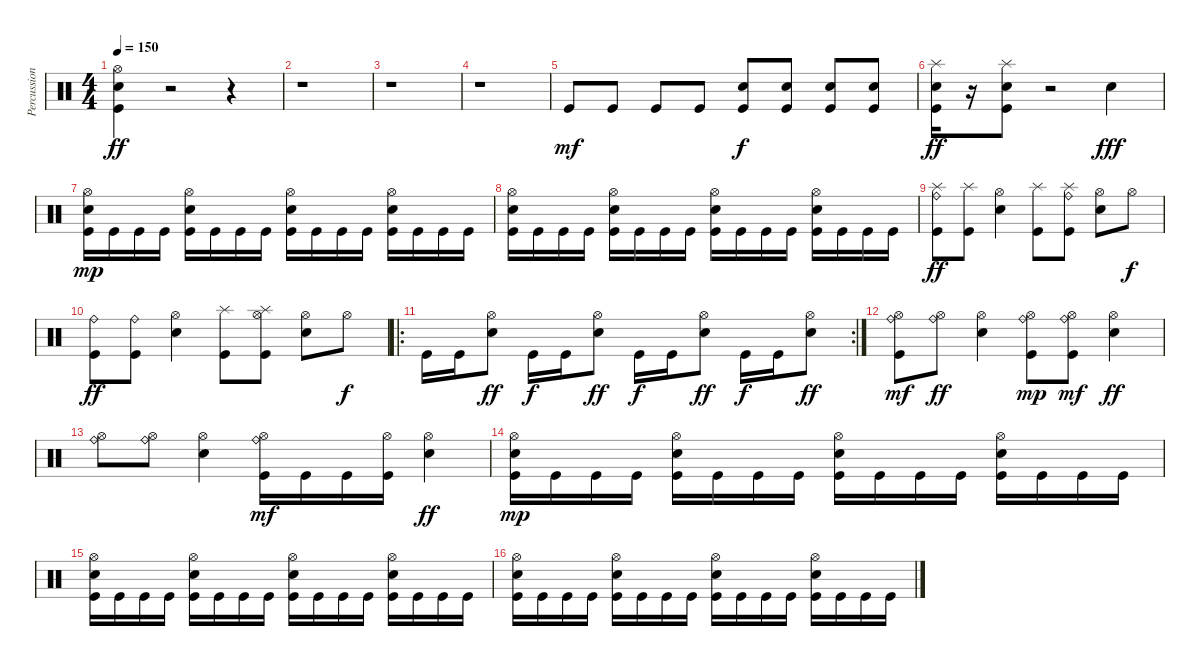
\track ("Percussion" "Percussion") {instrument percussion}
\staff {score}
\articulation defaults
\ts (4 4)
\tempo 150
\clef neutral
\ks c
("Kick (hit)" "Snare (hit) 2" "Hi-Hat (open)").4{dy ff} r.2 r.4 |
r.1 |
r.1 |
r.1 |
"Kick (hit)".8{dy mf} "Kick (hit)".8 "Kick (hit)".8 "Kick (hit)".8 ("Kick (hit)" "Snare (hit) 2").8{dy f} ("Kick (hit)" "Snare (hit) 2").8 ("Kick (hit)" "Snare (hit) 2").8 ("Kick (hit)" "Snare (hit) 2").8 |
("Snare (hit) 2" "Kick (hit)" "Splash (hit)").16{dy ff} r.16 ("Snare (hit) 2" "Kick (hit)" "Splash (hit)").8 r.2 "Snare (hit) 2".4{dy fff} |
("Hi-Hat (open)" "Snare (hit) 2" "Kick (hit)").16{dy mp} "Kick (hit)".16 "Kick (hit)".16 "Kick (hit)".16 ("Hi-Hat (open)" "Snare (hit) 2" "Kick (hit)").16 "Kick (hit)".16 "Kick (hit)".16 "Kick (hit)".16 ("Hi-Hat (open)" "Snare (hit) 2" "Kick (hit)").16 "Kick (hit)".16 "Kick (hit)".16 "Kick (hit)".16 ("Hi-Hat (open)" "Snare (hit) 2" "Kick (hit)").16 "Kick (hit)".16 "Kick (hit)".16 "Kick (hit)".16 |
("Hi-Hat (open)" "Snare (hit) 2" "Kick (hit)").16 "Kick (hit)".16 "Kick (hit)".16 "Kick (hit)".16 ("Hi-Hat (open)" "Snare (hit) 2" "Kick (hit)").16 "Kick (hit)".16 "Kick (hit)".16 "Kick (hit)".16 ("Hi-Hat (open)" "Snare (hit) 2" "Kick (hit)").16 "Kick (hit)".16 "Kick (hit)".16 "Kick (hit)".16 ("Hi-Hat (open)" "Snare (hit) 2" "Kick (hit)").16 "Kick (hit)".16 "Kick (hit)".16 "Kick (hit)".16 |
("Kick (hit)" "Splash (hit)" "Ride (bell)").8{dy ff} ("Kick (hit)" "Splash (hit)").8 ("Hi-Hat (open)" "Snare (hit) 2").4 ("Kick (hit)" "Splash (hit)").8 ("Kick (hit)" "Splash (hit)" "Ride (bell)").8 ("Hi-Hat (open)" "Snare (hit) 2").8 "Hi-Hat (open)".8{dy f} |
("Kick (hit)" "Ride (bell)").8{dy ff} ("Kick (hit)" "Ride (bell)").8 ("Hi-Hat (open)" "Snare (hit) 2").4 ("Kick (hit)" "Splash (hit)").8 ("Kick (hit)" "Hi-Hat (open)" "Splash (hit)").8 ("Hi-Hat (open)" "Snare (hit) 2").8 "Hi-Hat (open)".8{dy f} |
\ro
\rc 2 "Kick (hit)".16 "Kick (hit)".16
("Hi-Hat (open)" "Snare (hit) 2").8{dy ff} "Kick (hit)".16{dy f} "Kick (hit)".16 ("Hi-Hat (open)" "Snare (hit) 2").8{dy ff} "Kick (hit)".16{dy f} "Kick (hit)".16 ("Hi-Hat (open)" "Snare (hit) 2").8{dy ff} "Kick (hit)".16{dy f} "Kick (hit)".16 ("Hi-Hat (open)" "Snare (hit) 2").8{dy ff} |
("Ride (bell)" "Hi-Hat (open)" "Kick (hit)").8{dy mf} ("Ride (bell)" "Hi-Hat (open)").8{dy ff} ("Snare (hit) 2" "Hi-Hat (open)").4 ("Ride (bell)" "Hi-Hat (open)" "Kick (hit)").8{dy mp} ("Ride (bell)" "Hi-Hat (open)" "Kick (hit)").8{dy mf} ("Snare (hit) 2" "Hi-Hat (open)").4{dy ff} |
("Ride (bell)" "Hi-Hat (open)").8 ("Ride (bell)" "Hi-Hat (open)").8 ("Snare (hit) 2" "Hi-Hat (open)").4 ("Ride (bell)" "Hi-Hat (open)" "Kick (hit)").16{dy mf} "Kick (hit)".16 "Kick (hit)".16 ("Hi-Hat (open)" "Kick (hit)").16 ("Snare (hit) 2" "Hi-Hat (open)").4{dy ff} |
("Hi-Hat (open)" "Snare (hit) 2" "Kick (hit)").16{dy mp} "Kick (hit)".16 "Kick (hit)".16 "Kick (hit)".16 ("Hi-Hat (open)" "Snare (hit) 2" "Kick (hit)").16 "Kick (hit)".16 "Kick (hit)".16 "Kick (hit)".16 ("Hi-Hat (open)" "Snare (hit) 2" "Kick (hit)").16 "Kick (hit)".16 "Kick (hit)".16 "Kick (hit)".16 ("Hi-Hat (open)" "Snare (hit) 2" "Kick (hit)").16 "Kick (hit)".16 "Kick (hit)".16 "Kick (hit)".16 |
("Hi-Hat (open)" "Snare (hit) 2" "Kick (hit)").16 "Kick (hit)".16 "Kick (hit)".16 "Kick (hit)".16 ("Hi-Hat (open)" "Snare (hit) 2" "Kick (hit)").16 "Kick (hit)".16 "Kick (hit)".16 "Kick (hit)".16 ("Hi-Hat (open)" "Snare (hit) 2" "Kick (hit)").16 "Kick (hit)".16 "Kick (hit)".16 "Kick (hit)".16 ("Hi-Hat (open)" "Snare (hit) 2" "Kick (hit)").16 "Kick (hit)".16 "Kick (hit)".16 "Kick (hit)".16 |
("Hi-Hat (open)" "Snare (hit) 2" "Kick (hit)").16 "Kick (hit)".16 "Kick (hit)".16 "Kick (hit)".16 ("Hi-Hat (open)" "Snare (hit) 2" "Kick (hit)").16 "Kick (hit)".16 "Kick (hit)".16 "Kick (hit)".16 ("Hi-Hat (open)" "Snare (hit) 2" "Kick (hit)").16 "Kick (hit)".16 "Kick (hit)".16 "Kick (hit)".16 ("Hi-Hat (open)" "Snare (hit) 2" "Kick (hit)").16 "Kick (hit)".16 "Kick (hit)".16 "Kick (hit)".16
